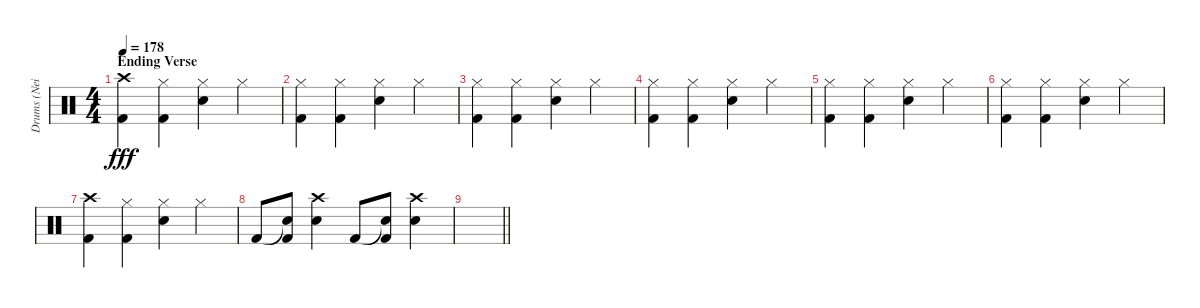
\track ("Drums (Neil Sanderson)" "Drums (Nei") {instrument percussion}
\staff {score}
\articulation defaults
\ts (4 4)
\section ("" "Ending Verse")
\tempo 178
\clef neutral
\ks c
("Crash high (hit)" "Kick (hit) 2").4{dy fff} ("Hi-Hat (closed)" "Kick (hit) 2").4 ("Hi-Hat (closed)" "Snare (hit) 2").4 "Hi-Hat (closed)".4 |
("Hi-Hat (closed)" "Kick (hit) 2").4 ("Hi-Hat (closed)" "Kick (hit) 2").4 ("Hi-Hat (closed)" "Snare (hit) 2").4 "Hi-Hat (closed)".4 |
("Hi-Hat (closed)" "Kick (hit) 2").4 ("Hi-Hat (closed)" "Kick (hit) 2").4 ("Hi-Hat (closed)" "Snare (hit) 2").4 "Hi-Hat (closed)".4 |
("Hi-Hat (closed)" "Kick (hit) 2").4 ("Hi-Hat (closed)" "Kick (hit) 2").4 ("Hi-Hat (closed)" "Snare (hit) 2").4 "Hi-Hat (closed)".4 |
("Hi-Hat (closed)" "Kick (hit) 2").4 ("Hi-Hat (closed)" "Kick (hit) 2").4 ("Hi-Hat (closed)" "Snare (hit) 2").4 "Hi-Hat (closed)".4 |
("Hi-Hat (closed)" "Kick (hit) 2").4 ("Hi-Hat (closed)" "Kick (hit) 2").4 ("Hi-Hat (closed)" "Snare (hit) 2").4 "Hi-Hat (closed)".4 |
("Crash high (hit)" "Kick (hit) 2").4 ("Hi-Hat (closed)" "Kick (hit) 2").4 ("Hi-Hat (closed)" "Snare (hit) 2").4 "Hi-Hat (closed)".4 |
"Kick (hit) 2".8 ("Snare (hit)"{t} "Kick (hit) 2").8 ("Crash high (hit)" "Snare (hit) 2").4 "Kick (hit) 2".8 ("Snare (hit)"{t} "Kick (hit) 2").8 ("Crash high (hit)" "Snare (hit) 2").4 |
\barLineRight lightlight
